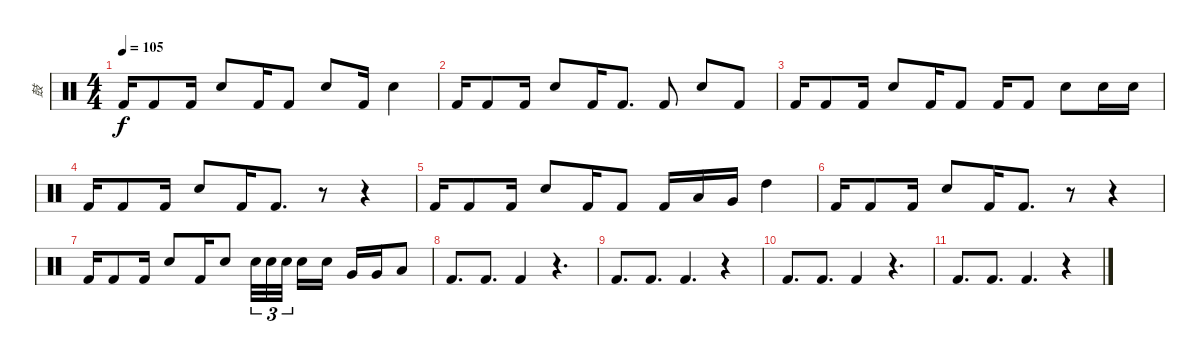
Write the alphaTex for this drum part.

\track ("鼓" "鼓") {instrument percussion}
\staff {score}
\articulation defaults
\ts (4 4)
\tempo 105
\clef neutral
\ks c "Kick (hit) 2".16{dy f} "Kick (hit) 2".8 "Kick (hit) 2".16 "Electric Snare (hit)".8 "Kick (hit) 2".16 "Kick (hit) 2".8 "Electric Snare (hit)".8 "Kick (hit) 2".16 "Electric Snare (hit)".4
|
"Kick (hit) 2".16 "Kick (hit) 2".8 "Kick (hit) 2".16 "Electric Snare (hit)".8 "Kick (hit) 2".16 "Kick (hit) 2".8{d} "Kick (hit) 2".8 "Electric Snare (hit)".8 "Kick (hit) 2".8 |
"Kick (hit) 2".16 "Kick (hit) 2".8 "Kick (hit) 2".16 "Electric Snare (hit)".8 "Kick (hit) 2".16 "Kick (hit) 2".8 "Kick (hit) 2".16 "Kick (hit) 2".8 "Electric Snare (hit)".8 "Electric Snare (hit)".16 "Electric Snare (hit)".16 |
"Kick (hit) 2".16 "Kick (hit) 2".8 "Kick (hit) 2".16 "Electric Snare (hit)".8 "Kick (hit) 2".16 "Kick (hit) 2".8{d} r.8 r.4 |
"Kick (hit) 2".16 "Kick (hit) 2".8 "Kick (hit) 2".16 "Electric Snare (hit)".8 "Kick (hit) 2".16 "Kick (hit) 2".8 "Kick (hit) 2".16 "Low Tom (hit)".16 "Very Low Tom (hit)".16 "High Tom (hit)".4 |
"Kick (hit) 2".16 "Kick (hit) 2".8 "Kick (hit) 2".16 "Electric Snare (hit)".8 "Kick (hit) 2".16 "Kick (hit) 2".8{d} r.8 r.4 |
"Kick (hit) 2".16 "Kick (hit) 2".8 "Kick (hit) 2".16 "Electric Snare (hit)".8 "Kick (hit) 2".16 "Electric Snare (hit)".8 "Electric Snare (hit)".32{tu (3 2)} "Electric Snare (hit)".32{tu (3 2)} "Electric Snare (hit)".32{tu (3 2) beam splitsecondary} "Electric Snare (hit)".16 "Electric Snare (hit)".16 "Very Low Tom (hit)".16 "Very Low Tom (hit)".16 "Low Floor Tom (hit)".8 |
"Kick (hit) 2".8{d} "Kick (hit) 2".8{d} "Kick (hit) 2".4 r.4{d} |
"Kick (hit) 2".8{d} "Kick (hit) 2".8{d} "Kick (hit) 2".4{d} r.4 |
"Kick (hit) 2".8{d} "Kick (hit) 2".8{d} "Kick (hit) 2".4 r.4{d} |
"Kick (hit) 2".8{d} "Kick (hit) 2".8{d} "Kick (hit) 2".4{d} r.4
